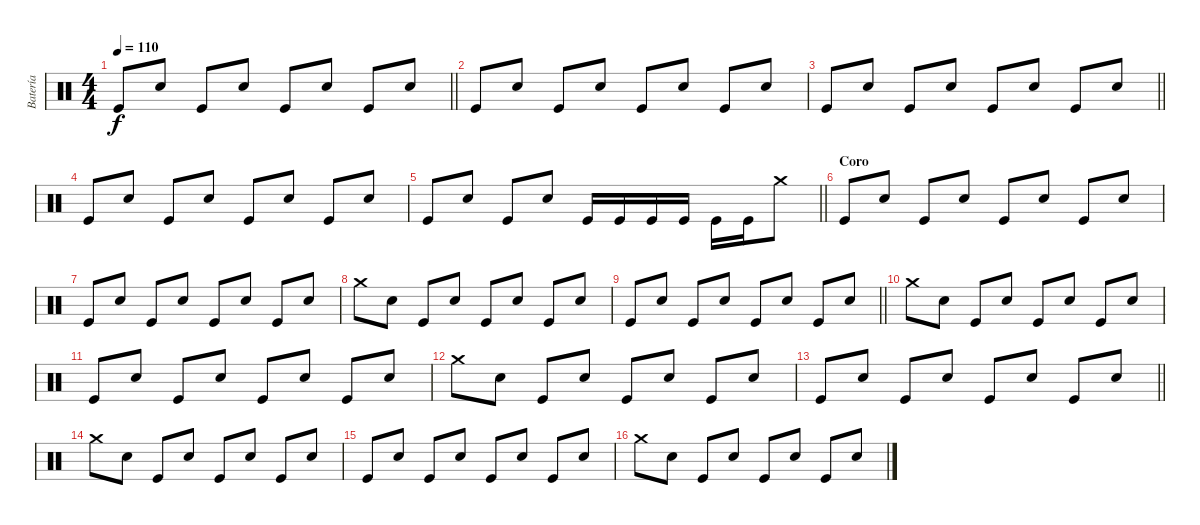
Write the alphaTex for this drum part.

\track ("Batería" "Batería") {instrument percussion}
\staff {score}
\articulation defaults
\ts (4 4)
\tempo 110
\clef neutral
\barLineRight lightlight
\ks c "Kick (hit)".8{dy f} "Electric Snare (hit)".8 "Kick (hit)".8 "Electric Snare (hit)".8 "Kick (hit)".8 "Electric Snare (hit)".8 "Kick (hit)".8 "Electric Snare (hit)".8
|
"Kick (hit)".8 "Electric Snare (hit)".8 "Kick (hit)".8 "Electric Snare (hit)".8 "Kick (hit)".8 "Electric Snare (hit)".8 "Kick (hit)".8 "Electric Snare (hit)".8 |
\barLineRight lightlight "Kick (hit)".8 "Electric Snare (hit)".8 "Kick (hit)".8 "Electric Snare (hit)".8 "Kick (hit)".8 "Electric Snare (hit)".8 "Kick (hit)".8 "Electric Snare (hit)".8
|
"Kick (hit)".8 "Electric Snare (hit)".8 "Kick (hit)".8 "Electric Snare (hit)".8 "Kick (hit)".8 "Electric Snare (hit)".8 "Kick (hit)".8 "Electric Snare (hit)".8 |
\barLineRight lightlight "Kick (hit)".8 "Electric Snare (hit)".8 "Kick (hit)".8 "Electric Snare (hit)".8 "Kick (hit)".16 "Kick (hit)".16 "Kick (hit)".16 "Kick (hit)".16 "Kick (hit)".16 "Kick (hit)".16 "Crash medium (hit)".8
|
\section ("" "Coro")
"Kick (hit)".8 "Electric Snare (hit)".8 "Kick (hit)".8 "Electric Snare (hit)".8 "Kick (hit)".8 "Electric Snare (hit)".8 "Kick (hit)".8 "Electric Snare (hit)".8 |
"Kick (hit)".8 "Electric Snare (hit)".8 "Kick (hit)".8 "Electric Snare (hit)".8 "Kick (hit)".8 "Electric Snare (hit)".8 "Kick (hit)".8 "Electric Snare (hit)".8 |
"Crash medium (hit)".8 "Electric Snare (hit)".8 "Kick (hit)".8 "Electric Snare (hit)".8 "Kick (hit)".8 "Electric Snare (hit)".8 "Kick (hit)".8 "Electric Snare (hit)".8 |
\barLineRight lightlight "Kick (hit)".8 "Electric Snare (hit)".8 "Kick (hit)".8 "Electric Snare (hit)".8 "Kick (hit)".8 "Electric Snare (hit)".8 "Kick (hit)".8 "Electric Snare (hit)".8
|
\section ("" "")
"Crash medium (hit)".8 "Electric Snare (hit)".8 "Kick (hit)".8 "Electric Snare (hit)".8 "Kick (hit)".8 "Electric Snare (hit)".8 "Kick (hit)".8 "Electric Snare (hit)".8 |
"Kick (hit)".8 "Electric Snare (hit)".8 "Kick (hit)".8 "Electric Snare (hit)".8 "Kick (hit)".8 "Electric Snare (hit)".8 "Kick (hit)".8 "Electric Snare (hit)".8 |
"Crash medium (hit)".8 "Electric Snare (hit)".8 "Kick (hit)".8 "Electric Snare (hit)".8 "Kick (hit)".8 "Electric Snare (hit)".8 "Kick (hit)".8 "Electric Snare (hit)".8 |
\barLineRight lightlight "Kick (hit)".8 "Electric Snare (hit)".8 "Kick (hit)".8 "Electric Snare (hit)".8 "Kick (hit)".8 "Electric Snare (hit)".8 "Kick (hit)".8 "Electric Snare (hit)".8
|
\section ("" "")
"Crash medium (hit)".8 "Electric Snare (hit)".8 "Kick (hit)".8 "Electric Snare (hit)".8 "Kick (hit)".8 "Electric Snare (hit)".8 "Kick (hit)".8 "Electric Snare (hit)".8 |
"Kick (hit)".8 "Electric Snare (hit)".8 "Kick (hit)".8 "Electric Snare (hit)".8 "Kick (hit)".8 "Electric Snare (hit)".8 "Kick (hit)".8 "Electric Snare (hit)".8 |
"Crash medium (hit)".8 "Electric Snare (hit)".8 "Kick (hit)".8 "Electric Snare (hit)".8 "Kick (hit)".8 "Electric Snare (hit)".8 "Kick (hit)".8 "Electric Snare (hit)".8
